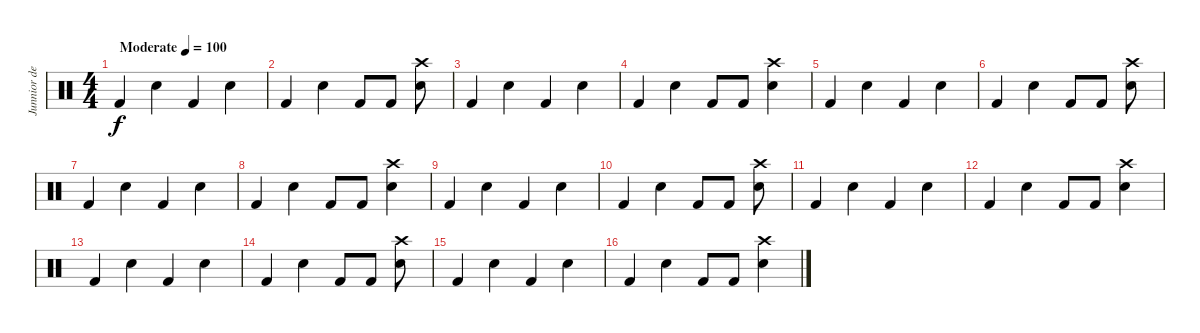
\track ("Junnior de Jesus" "Junnior de") {instrument percussion}
\staff {score}
\articulation defaults
\ts (4 4)
\tempo (100 "Moderate")
\clef neutral
\ks c "Kick (hit) 2".4{dy f} "Snare (hit) 2".4 "Kick (hit) 2".4 "Snare (hit) 2".4
|
"Kick (hit) 2".4 "Snare (hit) 2".4 "Kick (hit) 2".8 "Kick (hit) 2".8 ("Snare (hit) 2" "Crash high (hit)").8 |
"Kick (hit) 2".4 "Snare (hit) 2".4 "Kick (hit) 2".4 "Snare (hit) 2".4 |
"Kick (hit) 2".4 "Snare (hit) 2".4 "Kick (hit) 2".8 "Kick (hit) 2".8 ("Snare (hit) 2" "Crash high (hit)").4 |
"Kick (hit) 2".4 "Snare (hit) 2".4 "Kick (hit) 2".4 "Snare (hit) 2".4 |
"Kick (hit) 2".4 "Snare (hit) 2".4 "Kick (hit) 2".8 "Kick (hit) 2".8 ("Snare (hit) 2" "Crash high (hit)").8 |
"Kick (hit) 2".4 "Snare (hit) 2".4 "Kick (hit) 2".4 "Snare (hit) 2".4 |
"Kick (hit) 2".4 "Snare (hit) 2".4 "Kick (hit) 2".8 "Kick (hit) 2".8 ("Snare (hit) 2" "Crash high (hit)").4 |
"Kick (hit) 2".4 "Snare (hit) 2".4 "Kick (hit) 2".4 "Snare (hit) 2".4 |
"Kick (hit) 2".4 "Snare (hit) 2".4 "Kick (hit) 2".8 "Kick (hit) 2".8 ("Snare (hit) 2" "Crash high (hit)").8 |
"Kick (hit) 2".4 "Snare (hit) 2".4 "Kick (hit) 2".4 "Snare (hit) 2".4 |
"Kick (hit) 2".4 "Snare (hit) 2".4 "Kick (hit) 2".8 "Kick (hit) 2".8 ("Snare (hit) 2" "Crash high (hit)").4 |
"Kick (hit) 2".4 "Snare (hit) 2".4 "Kick (hit) 2".4 "Snare (hit) 2".4 |
"Kick (hit) 2".4 "Snare (hit) 2".4 "Kick (hit) 2".8 "Kick (hit) 2".8 ("Snare (hit) 2" "Crash high (hit)").8 |
"Kick (hit) 2".4 "Snare (hit) 2".4 "Kick (hit) 2".4 "Snare (hit) 2".4 |
"Kick (hit) 2".4 "Snare (hit) 2".4 "Kick (hit) 2".8 "Kick (hit) 2".8 ("Snare (hit) 2" "Crash high (hit)").4
